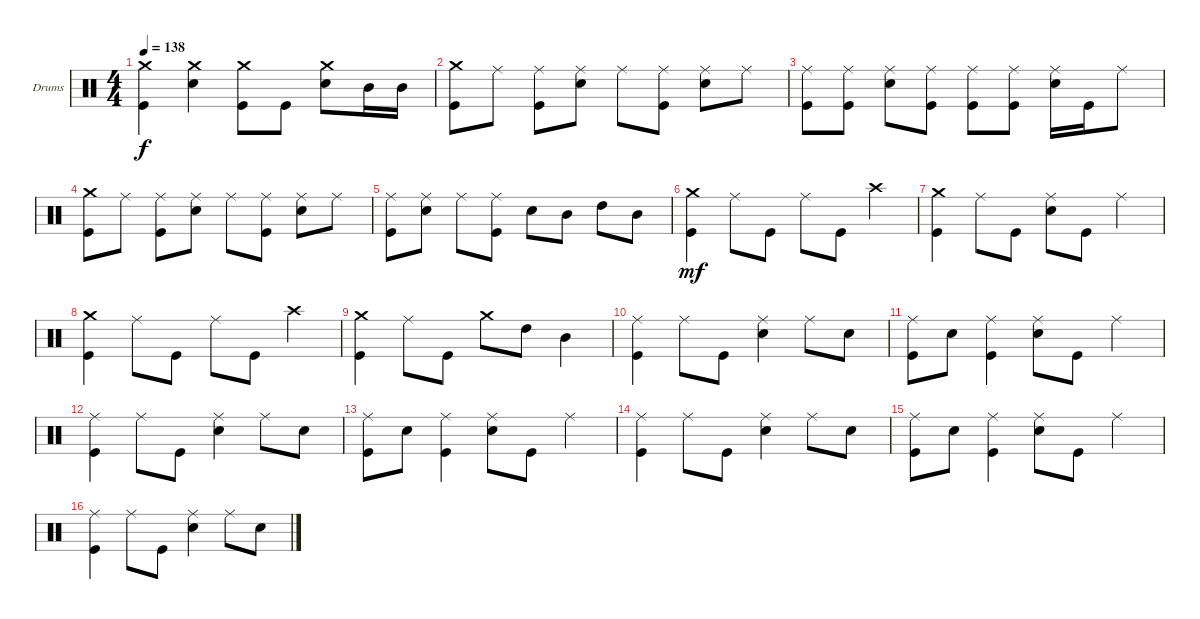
\defaultSystemsLayout 4
\bracketExtendMode groupsimilarinstruments
\firstSystemTrackNameOrientation horizontal
\otherSystemsTrackNameOrientation horizontal
\track ("Drumkit" "Drums") {instrument percussion}
\staff {score}
\articulation defaults
\ts (4 4)
\tempo 138
\clef neutral
\ks c
("Kick (hit)" "Crash medium (hit)").4{dy f} ("Crash medium (hit)" "Snare (hit) 2").4 ("Kick (hit)" "Crash medium (hit)").8 "Kick (hit)".8 ("Crash medium (hit)" "Snare (hit) 2").8 "Mid Tom (hit)".16 "Mid Tom (hit)".16 |
("Kick (hit)" "Crash medium (hit)").8 "Ride (middle)".8 ("Ride (middle)" "Kick (hit)").8 ("Ride (middle)" "Snare (hit) 2").8 "Ride (middle)".8 ("Ride (middle)" "Kick (hit)").8 ("Ride (middle)" "Snare (hit) 2").8 "Ride (middle)".8 |
("Ride (middle)" "Kick (hit)").8 ("Ride (middle)" "Kick (hit)").8 ("Ride (middle)" "Snare (hit) 2").8 ("Ride (middle)" "Kick (hit)").8 ("Ride (middle)" "Kick (hit)").8 ("Ride (middle)" "Kick (hit)").8 ("Ride (middle)" "Snare (hit) 2").16 "Kick (hit)".16 "Ride (middle)".8 |
("Kick (hit)" "Crash medium (hit)").8 "Ride (middle)".8 ("Ride (middle)" "Kick (hit)").8 ("Ride (middle)" "Snare (hit) 2").8 "Ride (middle)".8 ("Ride (middle)" "Kick (hit)").8 ("Ride (middle)" "Snare (hit) 2").8 "Ride (middle)".8 |
("Ride (middle)" "Kick (hit)").8 ("Ride (middle)" "Snare (hit) 2").8 "Ride (middle)".8 ("Ride (middle)" "Kick (hit)").8 "Snare (hit) 2".8 "Mid Tom (hit)".8 "High Tom (hit)".8 "Mid Tom (hit)".8 |
("Kick (hit)" "Crash medium (hit)").4{dy mf} "Ride (middle)".8 "Kick (hit)".8 "Ride (middle)".8 "Kick (hit)".8 "Crash high (hit)".4 |
("Crash medium (hit)" "Kick (hit)").4 "Ride (middle)".8 "Kick (hit)".8 ("Ride (middle)" "Snare (hit) 2").8 "Kick (hit)".8 "Ride (middle)".4 |
("Kick (hit)" "Crash medium (hit)").4 "Ride (middle)".8 "Kick (hit)".8 "Ride (middle)".8 "Kick (hit)".8 "Crash high (hit)".4 |
("Crash medium (hit)" "Kick (hit)").4 "Ride (middle)".8 "Kick (hit)".8 "Crash medium (hit)".8 "High Tom (hit)".8 "Mid Tom (hit)".4 |
("Kick (hit)" "Ride (middle)").4 "Ride (middle)".8 "Kick (hit)".8 ("Ride (middle)" "Snare (hit) 2").4 "Ride (middle)".8 "Snare (hit) 2".8 |
("Kick (hit)" "Ride (middle)").8 "Snare (hit) 2".8 ("Ride (middle)" "Kick (hit)").4 ("Ride (middle)" "Snare (hit) 2").8 "Kick (hit)".8 "Ride (middle)".4 |
("Kick (hit)" "Ride (middle)").4 "Ride (middle)".8 "Kick (hit)".8 ("Ride (middle)" "Snare (hit) 2").4 "Ride (middle)".8 "Snare (hit) 2".8 |
("Kick (hit)" "Ride (middle)").8 "Snare (hit) 2".8 ("Ride (middle)" "Kick (hit)").4 ("Ride (middle)" "Snare (hit) 2").8 "Kick (hit)".8 "Ride (middle)".4 |
("Kick (hit)" "Ride (middle)").4 "Ride (middle)".8 "Kick (hit)".8 ("Ride (middle)" "Snare (hit) 2").4 "Ride (middle)".8 "Snare (hit) 2".8 |
("Kick (hit)" "Ride (middle)").8 "Snare (hit) 2".8 ("Ride (middle)" "Kick (hit)").4 ("Ride (middle)" "Snare (hit) 2").8 "Kick (hit)".8 "Ride (middle)".4 |
("Kick (hit)" "Ride (middle)").4 "Ride (middle)".8 "Kick (hit)".8 ("Ride (middle)" "Snare (hit) 2").4 "Ride (middle)".8 "Snare (hit) 2".8
